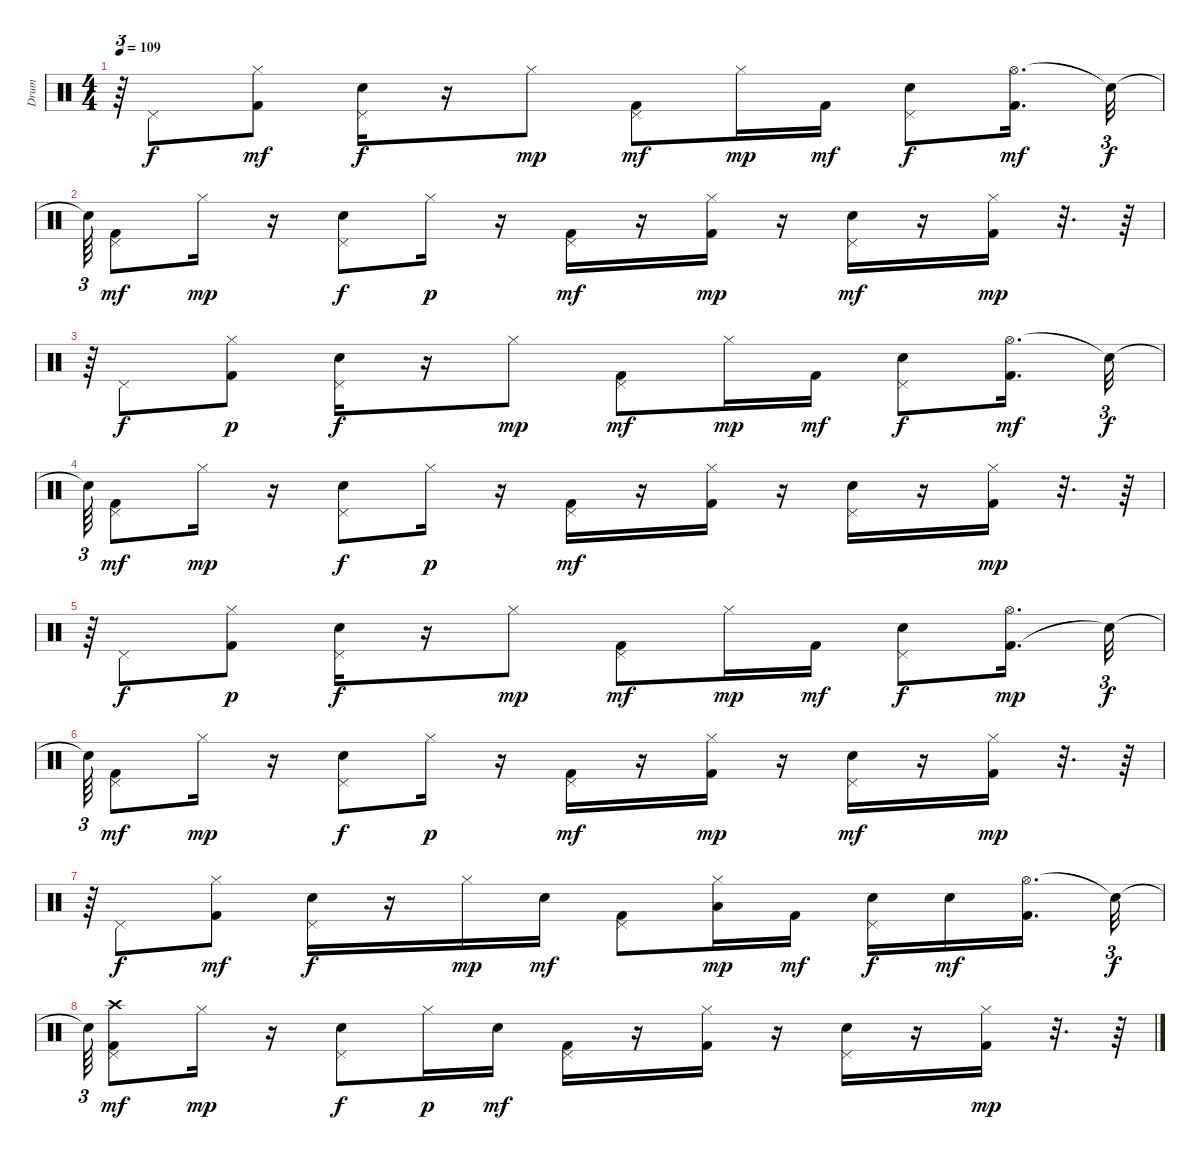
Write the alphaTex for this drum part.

\track ("Drum" "Drum") {instrument percussion}
\staff {score}
\articulation defaults
\ts (4 4)
\tempo 109
\clef neutral
\ks c
r.64{tu (3 2) dy mp} "Pedal Hi-Hat (hit)".8{dy f} ("Hi-Hat (closed)" "Kick (hit) 2").8{dy mf} ("Pedal Hi-Hat (hit)" "Electric Snare (hit)").16{dy f} r.16 "Hi-Hat (closed)".8{dy mp} ("Kick (hit) 2" "Pedal Hi-Hat (hit)").8{dy mf} "Hi-Hat (closed)".16{dy mp} "Kick (hit) 2".16{dy mf} ("Pedal Hi-Hat (hit)" "Electric Snare (hit)").8{dy f} ("Hi-Hat (open)" "Kick (hit) 2").16{d dy mf} "Snare (hit)"{t}.32{tu (3 2) dy f} |
"Snare (hit)"{t}.64{tu (3 2)} ("Pedal Hi-Hat (hit)" "Kick (hit) 2").8{dy mf} "Hi-Hat (closed)".16{dy mp} r.16 ("Electric Snare (hit)" "Pedal Hi-Hat (hit)").8{dy f} "Hi-Hat (closed)".16{dy p} r.16 ("Pedal Hi-Hat (hit)" "Kick (hit) 2").16{dy mf} r.16 ("Kick (hit) 2" "Hi-Hat (closed)").16{dy mp} r.16 ("Pedal Hi-Hat (hit)" "Electric Snare (hit)").16{dy mf} r.16 ("Kick (hit) 2" "Hi-Hat (closed)").16{dy mp} r.32{d} r.64 |
r.64{tu (3 2)} "Pedal Hi-Hat (hit)".8{dy f} ("Kick (hit) 2" "Hi-Hat (closed)").8{dy p} ("Pedal Hi-Hat (hit)" "Electric Snare (hit)").16{dy f} r.16 "Hi-Hat (closed)".8{dy mp} ("Pedal Hi-Hat (hit)" "Kick (hit) 2").8{dy mf} "Hi-Hat (closed)".16{dy mp} "Kick (hit) 2".16{dy mf} ("Pedal Hi-Hat (hit)" "Electric Snare (hit)").8{dy f} ("Hi-Hat (open)" "Kick (hit) 2").16{d dy mf} "Snare (hit)"{t}.32{tu (3 2) dy f} |
"Snare (hit)"{t}.64{tu (3 2)} ("Kick (hit) 2" "Pedal Hi-Hat (hit)").8{dy mf} "Hi-Hat (closed)".16{dy mp} r.16 ("Electric Snare (hit)" "Pedal Hi-Hat (hit)").8{dy f} "Hi-Hat (closed)".16{dy p} r.16 ("Kick (hit) 2" "Pedal Hi-Hat (hit)").16{dy mf} r.16 ("Hi-Hat (closed)" "Kick (hit) 2").16 r.16 ("Electric Snare (hit)" "Pedal Hi-Hat (hit)").16 r.16 ("Hi-Hat (closed)" "Kick (hit) 2").16{dy mp} r.32{d} r.64 |
r.64{tu (3 2)} "Pedal Hi-Hat (hit)".8{dy f} ("Kick (hit) 2" "Hi-Hat (closed)").8{dy p} ("Pedal Hi-Hat (hit)" "Electric Snare (hit)").16{dy f} r.16 "Hi-Hat (closed)".8{dy mp} ("Kick (hit) 2" "Pedal Hi-Hat (hit)").8{dy mf} "Hi-Hat (closed)".16{dy mp} "Kick (hit) 2".16{dy mf} ("Electric Snare (hit)" "Pedal Hi-Hat (hit)").8{dy f} ("Kick (hit) 2" "Hi-Hat (open)").16{d dy mp} "Snare (hit)"{t}.32{tu (3 2) dy f} |
"Snare (hit)"{t}.64{tu (3 2)} ("Kick (hit) 2" "Pedal Hi-Hat (hit)").8{dy mf} "Hi-Hat (closed)".16{dy mp} r.16 ("Electric Snare (hit)" "Pedal Hi-Hat (hit)").8{dy f} "Hi-Hat (closed)".16{dy p} r.16 ("Pedal Hi-Hat (hit)" "Kick (hit) 2").16{dy mf} r.16 ("Kick (hit) 2" "Hi-Hat (closed)").16{dy mp} r.16 ("Pedal Hi-Hat (hit)" "Electric Snare (hit)").16{dy mf} r.16 ("Hi-Hat (closed)" "Kick (hit) 2").16{dy mp} r.32{d} r.64 |
r.64{tu (3 2)} "Pedal Hi-Hat (hit)".8{dy f} ("Hi-Hat (closed)" "Kick (hit) 2").8{dy mf} ("Electric Snare (hit)" "Pedal Hi-Hat (hit)").16{dy f} r.16 "Hi-Hat (closed)".16{dy mp} "Electric Snare (hit)".16{dy mf} ("Pedal Hi-Hat (hit)" "Kick (hit) 2").8 ("Low Tom (hit)" "Hi-Hat (closed)").16{dy mp} "Kick (hit) 2".16{dy mf} ("Electric Snare (hit)" "Pedal Hi-Hat (hit)").16{dy f} "Electric Snare (hit)".16{dy mf} ("Hi-Hat (open)" "Kick (hit) 2").16{d beam splitsecondary} "Snare (hit)"{t}.32{tu (3 2) dy f} |
"Snare (hit)"{t}.64{tu (3 2)} ("Crash high (hit)" "Kick (hit) 2" "Pedal Hi-Hat (hit)").8{dy mf} "Hi-Hat (closed)".16{dy mp} r.16 ("Electric Snare (hit)" "Pedal Hi-Hat (hit)").8{dy f} "Hi-Hat (closed)".16{dy p} "Electric Snare (hit)".16{dy mf} ("Kick (hit) 2" "Pedal Hi-Hat (hit)").16 r.16 ("Hi-Hat (closed)" "Kick (hit) 2").16 r.16 ("Pedal Hi-Hat (hit)" "Electric Snare (hit)").16 r.16 ("Kick (hit) 2" "Hi-Hat (closed)").16{dy mp} r.32{d} r.64
